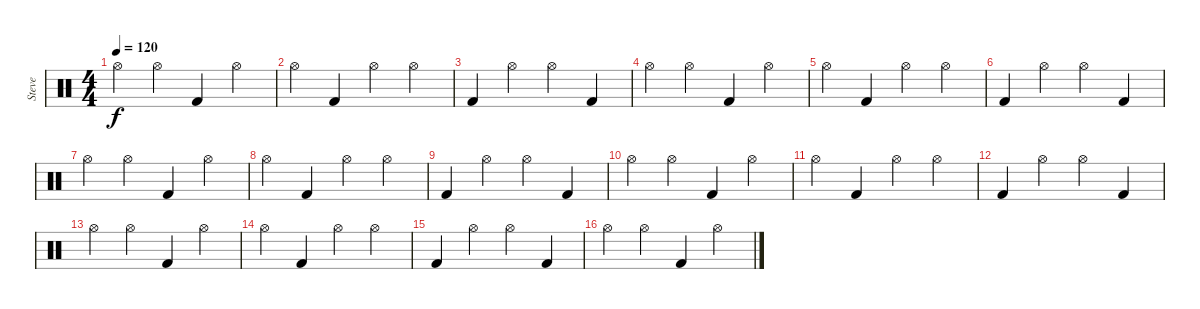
\track ("Steve" "Steve") {instrument percussion}
\staff {score}
\articulation defaults
\ts (4 4)
\tempo 120
\clef neutral
\ks c "Hi-Hat (open)".4{dy f} "Hi-Hat (open)".4 "Kick (hit) 2".4 "Hi-Hat (open)".4
|
"Hi-Hat (open)".4 "Kick (hit) 2".4 "Hi-Hat (open)".4 "Hi-Hat (open)".4 |
"Kick (hit) 2".4 "Hi-Hat (open)".4 "Hi-Hat (open)".4 "Kick (hit) 2".4 |
"Hi-Hat (open)".4 "Hi-Hat (open)".4 "Kick (hit) 2".4 "Hi-Hat (open)".4 |
"Hi-Hat (open)".4 "Kick (hit) 2".4 "Hi-Hat (open)".4 "Hi-Hat (open)".4 |
"Kick (hit) 2".4 "Hi-Hat (open)".4 "Hi-Hat (open)".4 "Kick (hit) 2".4 |
"Hi-Hat (open)".4 "Hi-Hat (open)".4 "Kick (hit) 2".4 "Hi-Hat (open)".4 |
"Hi-Hat (open)".4 "Kick (hit) 2".4 "Hi-Hat (open)".4 "Hi-Hat (open)".4 |
"Kick (hit) 2".4 "Hi-Hat (open)".4 "Hi-Hat (open)".4 "Kick (hit) 2".4 |
"Hi-Hat (open)".4 "Hi-Hat (open)".4 "Kick (hit) 2".4 "Hi-Hat (open)".4 |
"Hi-Hat (open)".4 "Kick (hit) 2".4 "Hi-Hat (open)".4 "Hi-Hat (open)".4 |
"Kick (hit) 2".4 "Hi-Hat (open)".4 "Hi-Hat (open)".4 "Kick (hit) 2".4 |
"Hi-Hat (open)".4 "Hi-Hat (open)".4 "Kick (hit) 2".4 "Hi-Hat (open)".4 |
"Hi-Hat (open)".4 "Kick (hit) 2".4 "Hi-Hat (open)".4 "Hi-Hat (open)".4 |
"Kick (hit) 2".4 "Hi-Hat (open)".4 "Hi-Hat (open)".4 "Kick (hit) 2".4 |
"Hi-Hat (open)".4 "Hi-Hat (open)".4 "Kick (hit) 2".4 "Hi-Hat (open)".4
